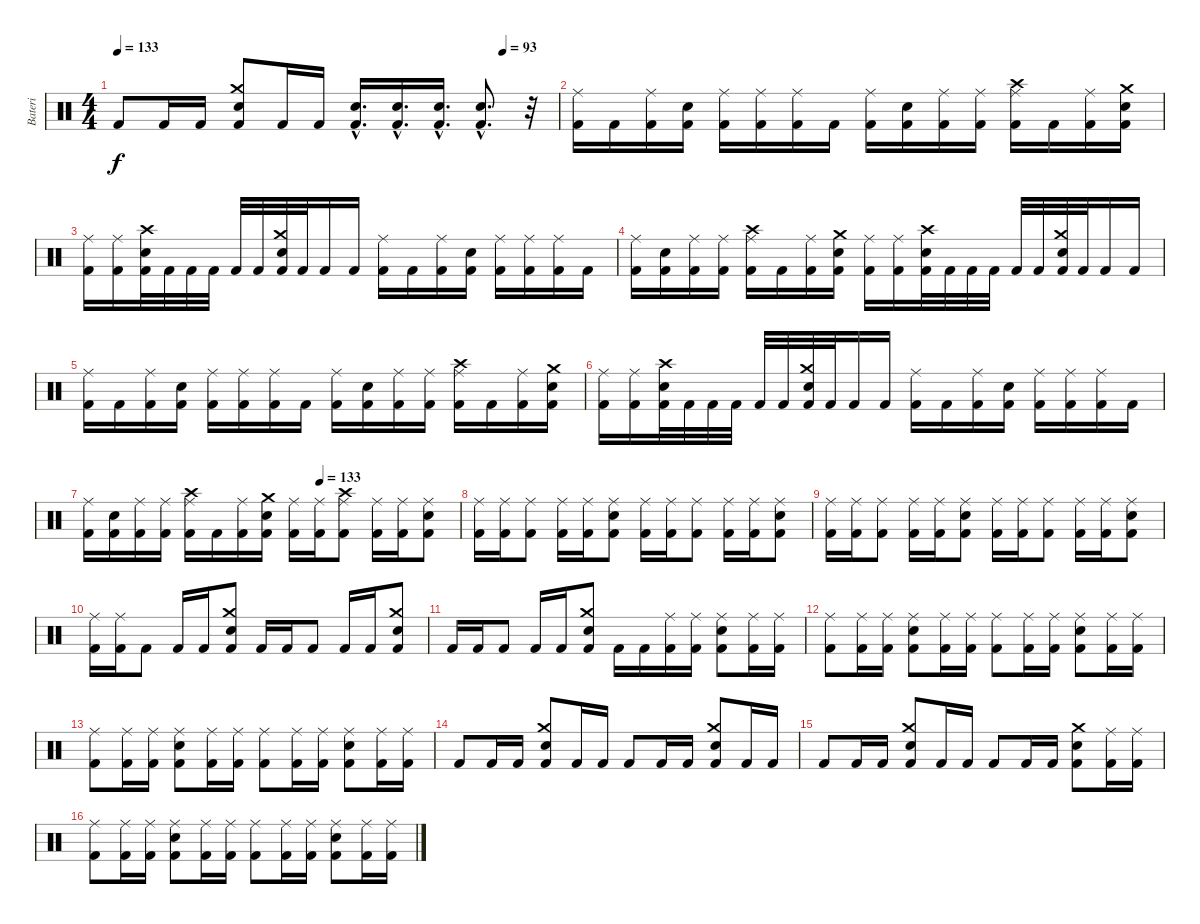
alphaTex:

\track ("Bateri" "Bateri") {instrument percussion}
\staff {score}
\articulation defaults
\ts (4 4)
\tempo 133
\tempo (93 0.875)
\clef neutral
\ks c "Kick (hit) 2".8{dy f} "Kick (hit) 2".16 "Kick (hit) 2".16
("Crash medium (hit)" "Snare (hit) 2" "Kick (hit) 2").8 "Kick (hit) 2".16 "Kick (hit) 2".16 ("Snare (hit) 2"{hac} "Kick (hit) 2"{hac}).16{d} ("Snare (hit) 2"{hac} "Kick (hit) 2"{hac}).16{d} ("Snare (hit) 2"{hac} "Kick (hit) 2"{hac}).16{d} ("Snare (hit) 2"{hac} "Kick (hit) 2"{hac}).8{d} r.32 |
("Ride (middle)" "Kick (hit) 2").16 "Kick (hit) 2".16 ("Ride (middle)" "Kick (hit) 2").16 ("Snare (hit) 2" "Kick (hit) 2").16 ("Ride (middle)" "Kick (hit) 2").16 ("Ride (middle)" "Kick (hit) 2").16 ("Ride (middle)" "Kick (hit) 2").16 "Kick (hit) 2".16 ("Ride (middle)" "Kick (hit) 2").16 ("Snare (hit) 2" "Kick (hit) 2").16 ("Ride (middle)" "Kick (hit) 2").16 ("Ride (middle)" "Kick (hit) 2").16 ("Crash high (hit)" "Ride (middle)" "Kick (hit) 2").16 "Kick (hit) 2".16 ("Ride (middle)" "Kick (hit) 2").16 ("Crash medium (hit)" "Snare (hit) 2" "Kick (hit) 2").16 |
("Ride (middle)" "Kick (hit) 2").16 ("Ride (middle)" "Kick (hit) 2").16 ("Crash high (hit)" "Snare (hit) 2" "Kick (hit) 2").32 "Kick (hit) 2".32 "Kick (hit) 2".32 "Kick (hit) 2".32 "Kick (hit) 2".32 "Kick (hit) 2".32 ("Crash medium (hit)" "Snare (hit) 2" "Kick (hit) 2").32 "Kick (hit) 2".32 "Kick (hit) 2".16 "Kick (hit) 2".16 ("Ride (middle)" "Kick (hit) 2").16 "Kick (hit) 2".16 ("Ride (middle)" "Kick (hit) 2").16 ("Snare (hit) 2" "Kick (hit) 2").16 ("Ride (middle)" "Kick (hit) 2").16 ("Ride (middle)" "Kick (hit) 2").16 ("Ride (middle)" "Kick (hit) 2").16 "Kick (hit) 2".16 |
("Ride (middle)" "Kick (hit) 2").16 ("Snare (hit) 2" "Kick (hit) 2").16 ("Ride (middle)" "Kick (hit) 2").16 ("Ride (middle)" "Kick (hit) 2").16 ("Crash high (hit)" "Ride (middle)" "Kick (hit) 2").16 "Kick (hit) 2".16 ("Ride (middle)" "Kick (hit) 2").16 ("Crash medium (hit)" "Snare (hit) 2" "Kick (hit) 2").16 ("Ride (middle)" "Kick (hit) 2").16 ("Ride (middle)" "Kick (hit) 2").16 ("Crash high (hit)" "Snare (hit) 2" "Kick (hit) 2").32 "Kick (hit) 2".32 "Kick (hit) 2".32 "Kick (hit) 2".32 "Kick (hit) 2".32 "Kick (hit) 2".32 ("Crash medium (hit)" "Snare (hit) 2" "Kick (hit) 2").32 "Kick (hit) 2".32 "Kick (hit) 2".16 "Kick (hit) 2".16 |
("Ride (middle)" "Kick (hit) 2").16 "Kick (hit) 2".16 ("Ride (middle)" "Kick (hit) 2").16 ("Snare (hit) 2" "Kick (hit) 2").16 ("Ride (middle)" "Kick (hit) 2").16 ("Ride (middle)" "Kick (hit) 2").16 ("Ride (middle)" "Kick (hit) 2").16 "Kick (hit) 2".16 ("Ride (middle)" "Kick (hit) 2").16 ("Snare (hit) 2" "Kick (hit) 2").16 ("Ride (middle)" "Kick (hit) 2").16 ("Ride (middle)" "Kick (hit) 2").16 ("Crash high (hit)" "Ride (middle)" "Kick (hit) 2").16 "Kick (hit) 2".16 ("Ride (middle)" "Kick (hit) 2").16 ("Crash medium (hit)" "Snare (hit) 2" "Kick (hit) 2").16 |
("Ride (middle)" "Kick (hit) 2").16 ("Ride (middle)" "Kick (hit) 2").16 ("Crash high (hit)" "Snare (hit) 2" "Kick (hit) 2").32 "Kick (hit) 2".32 "Kick (hit) 2".32 "Kick (hit) 2".32 "Kick (hit) 2".32 "Kick (hit) 2".32 ("Crash medium (hit)" "Snare (hit) 2" "Kick (hit) 2").32 "Kick (hit) 2".32 "Kick (hit) 2".16 "Kick (hit) 2".16 ("Ride (middle)" "Kick (hit) 2").16 "Kick (hit) 2".16 ("Ride (middle)" "Kick (hit) 2").16 ("Snare (hit) 2" "Kick (hit) 2").16 ("Ride (middle)" "Kick (hit) 2").16 ("Ride (middle)" "Kick (hit) 2").16 ("Ride (middle)" "Kick (hit) 2").16 "Kick (hit) 2".16 |
\tempo (133 0.625)
("Ride (middle)" "Kick (hit) 2").16 ("Snare (hit) 2" "Kick (hit) 2").16 ("Ride (middle)" "Kick (hit) 2").16 ("Ride (middle)" "Kick (hit) 2").16 ("Crash high (hit)" "Ride (middle)" "Kick (hit) 2").16 "Kick (hit) 2".16 ("Ride (middle)" "Kick (hit) 2").16 ("Crash medium (hit)" "Snare (hit) 2" "Kick (hit) 2").16 ("Ride (middle)" "Kick (hit) 2").16 ("Ride (middle)" "Kick (hit) 2").16 ("Crash high (hit)" "Ride (middle)" "Kick (hit) 2").8 ("Ride (middle)" "Kick (hit) 2").16 ("Ride (middle)" "Kick (hit) 2").16 ("Snare (hit) 2" "Ride (middle)" "Kick (hit) 2").8 |
("Ride (middle)" "Kick (hit) 2").16 ("Ride (middle)" "Kick (hit) 2").16 ("Ride (middle)" "Kick (hit) 2").8 ("Ride (middle)" "Kick (hit) 2").16 ("Ride (middle)" "Kick (hit) 2").16 ("Snare (hit) 2" "Ride (middle)" "Kick (hit) 2").8 ("Ride (middle)" "Kick (hit) 2").16 ("Ride (middle)" "Kick (hit) 2").16 ("Ride (middle)" "Kick (hit) 2").8 ("Ride (middle)" "Kick (hit) 2").16 ("Ride (middle)" "Kick (hit) 2").16 ("Snare (hit) 2" "Ride (middle)" "Kick (hit) 2").8 |
("Ride (middle)" "Kick (hit) 2").16 ("Ride (middle)" "Kick (hit) 2").16 ("Ride (middle)" "Kick (hit) 2").8 ("Ride (middle)" "Kick (hit) 2").16 ("Ride (middle)" "Kick (hit) 2").16 ("Snare (hit) 2" "Ride (middle)" "Kick (hit) 2").8 ("Ride (middle)" "Kick (hit) 2").16 ("Ride (middle)" "Kick (hit) 2").16 ("Ride (middle)" "Kick (hit) 2").8 ("Ride (middle)" "Kick (hit) 2").16 ("Ride (middle)" "Kick (hit) 2").16 ("Snare (hit) 2" "Ride (middle)" "Kick (hit) 2").8 |
("Ride (middle)" "Kick (hit) 2").16 ("Ride (middle)" "Kick (hit) 2").16 "Kick (hit) 2".8 "Kick (hit) 2".16 "Kick (hit) 2".16 ("Crash medium (hit)" "Snare (hit) 2" "Kick (hit) 2").8 "Kick (hit) 2".16 "Kick (hit) 2".16 "Kick (hit) 2".8 "Kick (hit) 2".16 "Kick (hit) 2".16 ("Crash medium (hit)" "Snare (hit) 2" "Kick (hit) 2").8 |
"Kick (hit) 2".16 "Kick (hit) 2".16 "Kick (hit) 2".8 "Kick (hit) 2".16 "Kick (hit) 2".16 ("Crash medium (hit)" "Snare (hit) 2" "Kick (hit) 2").8 "Kick (hit) 2".16 "Kick (hit) 2".16 ("Ride (middle)" "Kick (hit) 2").16 ("Ride (middle)" "Kick (hit) 2").16 ("Snare (hit) 2" "Ride (middle)" "Kick (hit) 2").8 ("Ride (middle)" "Kick (hit) 2").16 ("Ride (middle)" "Kick (hit) 2").16 |
("Ride (middle)" "Kick (hit) 2").8 ("Ride (middle)" "Kick (hit) 2").16 ("Ride (middle)" "Kick (hit) 2").16 ("Snare (hit) 2" "Ride (middle)" "Kick (hit) 2").8 ("Ride (middle)" "Kick (hit) 2").16 ("Ride (middle)" "Kick (hit) 2").16 ("Ride (middle)" "Kick (hit) 2").8 ("Ride (middle)" "Kick (hit) 2").16 ("Ride (middle)" "Kick (hit) 2").16 ("Snare (hit) 2" "Ride (middle)" "Kick (hit) 2").8 ("Ride (middle)" "Kick (hit) 2").16 ("Ride (middle)" "Kick (hit) 2").16 |
("Ride (middle)" "Kick (hit) 2").8 ("Ride (middle)" "Kick (hit) 2").16 ("Ride (middle)" "Kick (hit) 2").16 ("Snare (hit) 2" "Ride (middle)" "Kick (hit) 2").8 ("Ride (middle)" "Kick (hit) 2").16 ("Ride (middle)" "Kick (hit) 2").16 ("Ride (middle)" "Kick (hit) 2").8 ("Ride (middle)" "Kick (hit) 2").16 ("Ride (middle)" "Kick (hit) 2").16 ("Snare (hit) 2" "Ride (middle)" "Kick (hit) 2").8 ("Ride (middle)" "Kick (hit) 2").16 ("Ride (middle)" "Kick (hit) 2").16 |
"Kick (hit) 2".8 "Kick (hit) 2".16 "Kick (hit) 2".16 ("Crash medium (hit)" "Snare (hit) 2" "Kick (hit) 2").8 "Kick (hit) 2".16 "Kick (hit) 2".16 "Kick (hit) 2".8 "Kick (hit) 2".16 "Kick (hit) 2".16 ("Crash medium (hit)" "Snare (hit) 2" "Kick (hit) 2").8 "Kick (hit) 2".16 "Kick (hit) 2".16 |
"Kick (hit) 2".8 "Kick (hit) 2".16 "Kick (hit) 2".16 ("Crash medium (hit)" "Snare (hit) 2" "Kick (hit) 2").8 "Kick (hit) 2".16 "Kick (hit) 2".16 "Kick (hit) 2".8 "Kick (hit) 2".16 "Kick (hit) 2".16 ("Crash medium (hit)" "Snare (hit) 2" "Kick (hit) 2").8 ("Ride (middle)" "Kick (hit) 2").16 ("Ride (middle)" "Kick (hit) 2").16 |
("Ride (middle)" "Kick (hit) 2").8 ("Ride (middle)" "Kick (hit) 2").16 ("Ride (middle)" "Kick (hit) 2").16 ("Snare (hit) 2" "Ride (middle)" "Kick (hit) 2").8 ("Ride (middle)" "Kick (hit) 2").16 ("Ride (middle)" "Kick (hit) 2").16 ("Ride (middle)" "Kick (hit) 2").8 ("Ride (middle)" "Kick (hit) 2").16 ("Ride (middle)" "Kick (hit) 2").16 ("Snare (hit) 2" "Ride (middle)" "Kick (hit) 2").8 ("Ride (middle)" "Kick (hit) 2").16 ("Ride (middle)" "Kick (hit) 2").16
